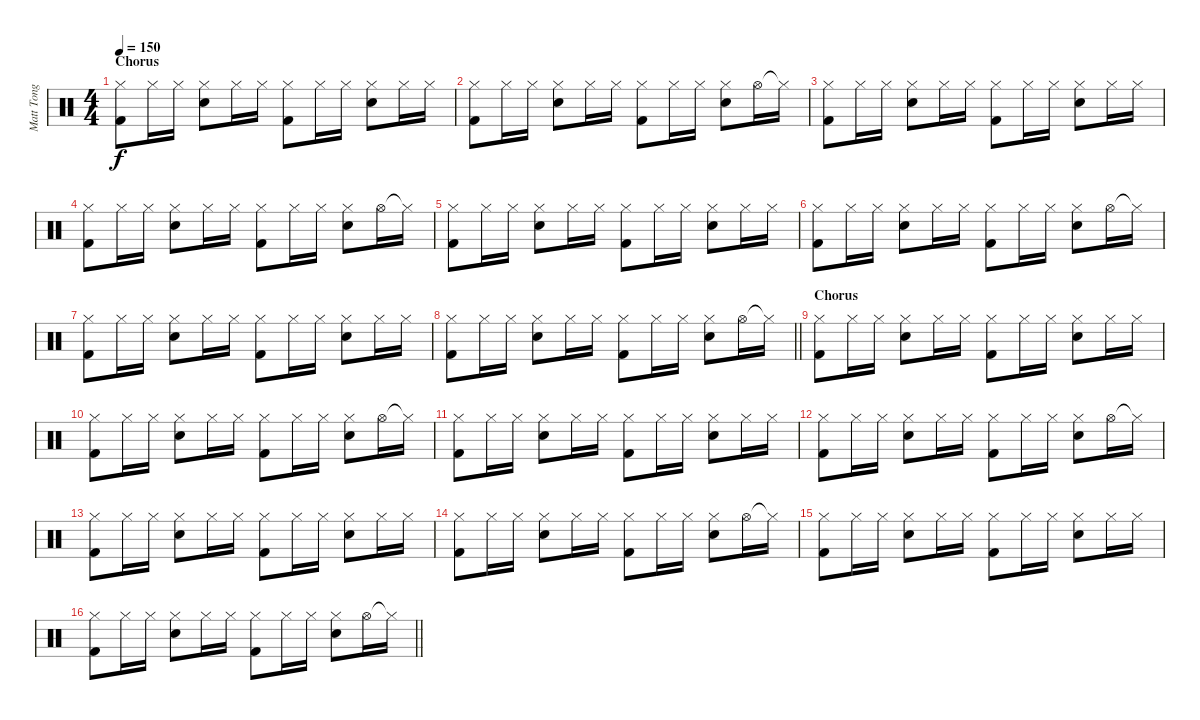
\track ("Matt Tong" "Matt Tong") {instrument percussion}
\staff {score}
\articulation defaults
\ts (4 4)
\section ("" "Chorus")
\tempo 150
\clef neutral
\ks c
("Hi-Hat (closed)" "Kick (hit) 2").8{dy f} "Hi-Hat (closed)".16 "Hi-Hat (closed)".16 ("Hi-Hat (closed)" "Electric Snare (hit)").8 "Hi-Hat (closed)".16 "Hi-Hat (closed)".16 ("Hi-Hat (closed)" "Kick (hit) 2").8 "Hi-Hat (closed)".16 "Hi-Hat (closed)".16 ("Hi-Hat (closed)" "Electric Snare (hit)").8 "Hi-Hat (closed)".16 "Hi-Hat (closed)".16 |
("Hi-Hat (closed)" "Kick (hit) 2").8 "Hi-Hat (closed)".16 "Hi-Hat (closed)".16 ("Hi-Hat (closed)" "Electric Snare (hit)").8 "Hi-Hat (closed)".16 "Hi-Hat (closed)".16 ("Hi-Hat (closed)" "Kick (hit) 2").8 "Hi-Hat (closed)".16 "Hi-Hat (closed)".16 ("Hi-Hat (closed)" "Electric Snare (hit)").8 "Hi-Hat (open)".16 "Hi-Hat (closed)"{t}.16 |
("Hi-Hat (closed)" "Kick (hit) 2").8 "Hi-Hat (closed)".16 "Hi-Hat (closed)".16 ("Hi-Hat (closed)" "Electric Snare (hit)").8 "Hi-Hat (closed)".16 "Hi-Hat (closed)".16 ("Hi-Hat (closed)" "Kick (hit) 2").8 "Hi-Hat (closed)".16 "Hi-Hat (closed)".16 ("Hi-Hat (closed)" "Electric Snare (hit)").8 "Hi-Hat (closed)".16 "Hi-Hat (closed)".16 |
("Hi-Hat (closed)" "Kick (hit) 2").8 "Hi-Hat (closed)".16 "Hi-Hat (closed)".16 ("Hi-Hat (closed)" "Electric Snare (hit)").8 "Hi-Hat (closed)".16 "Hi-Hat (closed)".16 ("Hi-Hat (closed)" "Kick (hit) 2").8 "Hi-Hat (closed)".16 "Hi-Hat (closed)".16 ("Hi-Hat (closed)" "Electric Snare (hit)").8 "Hi-Hat (open)".16 "Hi-Hat (closed)"{t}.16 |
("Hi-Hat (closed)" "Kick (hit) 2").8 "Hi-Hat (closed)".16 "Hi-Hat (closed)".16 ("Hi-Hat (closed)" "Electric Snare (hit)").8 "Hi-Hat (closed)".16 "Hi-Hat (closed)".16 ("Hi-Hat (closed)" "Kick (hit) 2").8 "Hi-Hat (closed)".16 "Hi-Hat (closed)".16 ("Hi-Hat (closed)" "Electric Snare (hit)").8 "Hi-Hat (closed)".16 "Hi-Hat (closed)".16 |
("Hi-Hat (closed)" "Kick (hit) 2").8 "Hi-Hat (closed)".16 "Hi-Hat (closed)".16 ("Hi-Hat (closed)" "Electric Snare (hit)").8 "Hi-Hat (closed)".16 "Hi-Hat (closed)".16 ("Hi-Hat (closed)" "Kick (hit) 2").8 "Hi-Hat (closed)".16 "Hi-Hat (closed)".16 ("Hi-Hat (closed)" "Electric Snare (hit)").8 "Hi-Hat (open)".16 "Hi-Hat (closed)"{t}.16 |
("Hi-Hat (closed)" "Kick (hit) 2").8 "Hi-Hat (closed)".16 "Hi-Hat (closed)".16 ("Hi-Hat (closed)" "Electric Snare (hit)").8 "Hi-Hat (closed)".16 "Hi-Hat (closed)".16 ("Hi-Hat (closed)" "Kick (hit) 2").8 "Hi-Hat (closed)".16 "Hi-Hat (closed)".16 ("Hi-Hat (closed)" "Electric Snare (hit)").8 "Hi-Hat (closed)".16 "Hi-Hat (closed)".16 |
\barLineRight lightlight
("Hi-Hat (closed)" "Kick (hit) 2").8 "Hi-Hat (closed)".16 "Hi-Hat (closed)".16 ("Hi-Hat (closed)" "Electric Snare (hit)").8 "Hi-Hat (closed)".16 "Hi-Hat (closed)".16 ("Hi-Hat (closed)" "Kick (hit) 2").8 "Hi-Hat (closed)".16 "Hi-Hat (closed)".16 ("Hi-Hat (closed)" "Electric Snare (hit)").8 "Hi-Hat (open)".16 "Hi-Hat (closed)"{t}.16 |
\section ("" "Chorus")
("Hi-Hat (closed)" "Kick (hit) 2").8 "Hi-Hat (closed)".16 "Hi-Hat (closed)".16 ("Hi-Hat (closed)" "Electric Snare (hit)").8 "Hi-Hat (closed)".16 "Hi-Hat (closed)".16 ("Hi-Hat (closed)" "Kick (hit) 2").8 "Hi-Hat (closed)".16 "Hi-Hat (closed)".16 ("Hi-Hat (closed)" "Electric Snare (hit)").8 "Hi-Hat (closed)".16 "Hi-Hat (closed)".16 |
("Hi-Hat (closed)" "Kick (hit) 2").8 "Hi-Hat (closed)".16 "Hi-Hat (closed)".16 ("Hi-Hat (closed)" "Electric Snare (hit)").8 "Hi-Hat (closed)".16 "Hi-Hat (closed)".16 ("Hi-Hat (closed)" "Kick (hit) 2").8 "Hi-Hat (closed)".16 "Hi-Hat (closed)".16 ("Hi-Hat (closed)" "Electric Snare (hit)").8 "Hi-Hat (open)".16 "Hi-Hat (closed)"{t}.16 |
("Hi-Hat (closed)" "Kick (hit) 2").8 "Hi-Hat (closed)".16 "Hi-Hat (closed)".16 ("Hi-Hat (closed)" "Electric Snare (hit)").8 "Hi-Hat (closed)".16 "Hi-Hat (closed)".16 ("Hi-Hat (closed)" "Kick (hit) 2").8 "Hi-Hat (closed)".16 "Hi-Hat (closed)".16 ("Hi-Hat (closed)" "Electric Snare (hit)").8 "Hi-Hat (closed)".16 "Hi-Hat (closed)".16 |
("Hi-Hat (closed)" "Kick (hit) 2").8 "Hi-Hat (closed)".16 "Hi-Hat (closed)".16 ("Hi-Hat (closed)" "Electric Snare (hit)").8 "Hi-Hat (closed)".16 "Hi-Hat (closed)".16 ("Hi-Hat (closed)" "Kick (hit) 2").8 "Hi-Hat (closed)".16 "Hi-Hat (closed)".16 ("Hi-Hat (closed)" "Electric Snare (hit)").8 "Hi-Hat (open)".16 "Hi-Hat (closed)"{t}.16 |
("Hi-Hat (closed)" "Kick (hit) 2").8 "Hi-Hat (closed)".16 "Hi-Hat (closed)".16 ("Hi-Hat (closed)" "Electric Snare (hit)").8 "Hi-Hat (closed)".16 "Hi-Hat (closed)".16 ("Hi-Hat (closed)" "Kick (hit) 2").8 "Hi-Hat (closed)".16 "Hi-Hat (closed)".16 ("Hi-Hat (closed)" "Electric Snare (hit)").8 "Hi-Hat (closed)".16 "Hi-Hat (closed)".16 |
("Hi-Hat (closed)" "Kick (hit) 2").8 "Hi-Hat (closed)".16 "Hi-Hat (closed)".16 ("Hi-Hat (closed)" "Electric Snare (hit)").8 "Hi-Hat (closed)".16 "Hi-Hat (closed)".16 ("Hi-Hat (closed)" "Kick (hit) 2").8 "Hi-Hat (closed)".16 "Hi-Hat (closed)".16 ("Hi-Hat (closed)" "Electric Snare (hit)").8 "Hi-Hat (open)".16 "Hi-Hat (closed)"{t}.16 |
("Hi-Hat (closed)" "Kick (hit) 2").8 "Hi-Hat (closed)".16 "Hi-Hat (closed)".16 ("Hi-Hat (closed)" "Electric Snare (hit)").8 "Hi-Hat (closed)".16 "Hi-Hat (closed)".16 ("Hi-Hat (closed)" "Kick (hit) 2").8 "Hi-Hat (closed)".16 "Hi-Hat (closed)".16 ("Hi-Hat (closed)" "Electric Snare (hit)").8 "Hi-Hat (closed)".16 "Hi-Hat (closed)".16 |
\barLineRight lightlight
("Hi-Hat (closed)" "Kick (hit) 2").8 "Hi-Hat (closed)".16 "Hi-Hat (closed)".16 ("Hi-Hat (closed)" "Electric Snare (hit)").8 "Hi-Hat (closed)".16 "Hi-Hat (closed)".16 ("Hi-Hat (closed)" "Kick (hit) 2").8 "Hi-Hat (closed)".16 "Hi-Hat (closed)".16 ("Hi-Hat (closed)" "Electric Snare (hit)").8 "Hi-Hat (open)".16 "Hi-Hat (closed)"{t}.16
